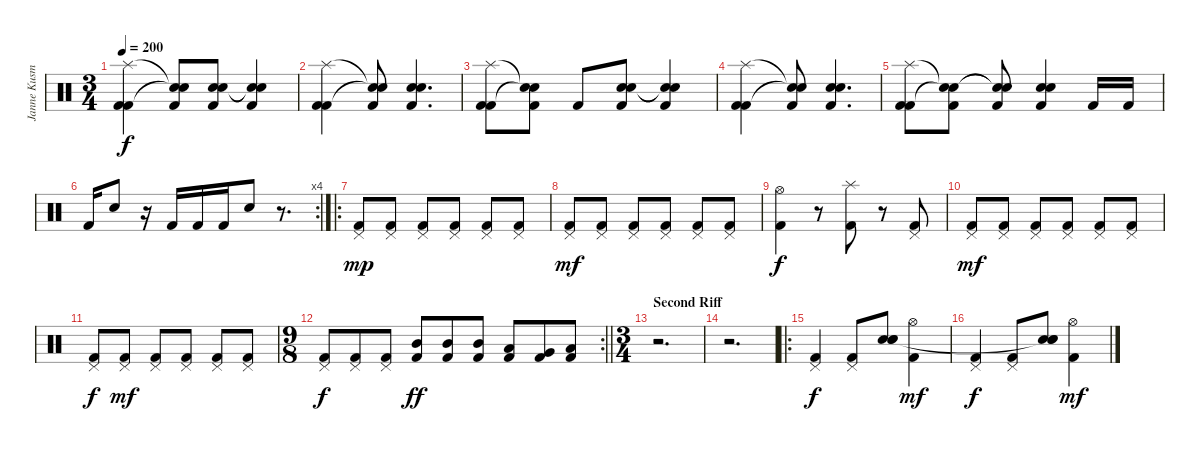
\track ("Janne Kusmin" "Janne Kusm") {instrument percussion}
\staff {score}
\articulation defaults
\ts (3 4)
\tempo 200
\clef neutral
\ks c
("Splash (hit)" "Kick (hit) 2" "Kick (hit) 2").4{dy f} ("Snare (hit)"{t} "Snare (hit)"{t} "Kick (hit) 2").8 ("Snare (hit) 2" "Snare (hit) 2" "Kick (hit) 2").8 ("Snare (hit)"{t} "Snare (hit)"{t} "Kick (hit) 2").4 |
("Splash (hit)" "Kick (hit) 2" "Kick (hit) 2").4 ("Snare (hit)"{t} "Snare (hit)"{t} "Kick (hit) 2").8 ("Snare (hit) 2" "Snare (hit) 2" "Kick (hit) 2").4{d} |
("Splash (hit)" "Kick (hit) 2" "Kick (hit) 2").8 ("Snare (hit)"{t} "Snare (hit)"{t} "Kick (hit) 2").8 "Kick (hit) 2".8 ("Snare (hit) 2" "Snare (hit) 2" "Kick (hit) 2").8 ("Snare (hit)"{t} "Snare (hit)"{t} "Kick (hit) 2").4 |
("Splash (hit)" "Kick (hit) 2" "Kick (hit) 2").4 ("Snare (hit)"{t} "Snare (hit)"{t} "Kick (hit) 2").8 ("Snare (hit) 2" "Snare (hit) 2" "Kick (hit) 2").4{d} |
("Splash (hit)" "Kick (hit) 2" "Kick (hit) 2").8 ("Snare (hit)"{t} "Snare (hit)"{t} "Kick (hit) 2").8 ("Snare (hit)"{t} "Snare (hit)"{t} "Kick (hit) 2").8 ("Snare (hit) 2" "Snare (hit) 2" "Kick (hit) 2").4 "Kick (hit) 2".16 "Kick (hit) 2".16 |
\rc 4 "Kick (hit) 2".16 "Snare (hit) 2".8
r.16 "Kick (hit) 2".16 "Kick (hit) 2".16 "Kick (hit) 2".16 "Snare (hit) 2".8 r.8{d} |
\ro
("Pedal Hi-Hat (hit)" "Kick (hit) 2").8{dy mp} ("Pedal Hi-Hat (hit)" "Kick (hit) 2").8 ("Pedal Hi-Hat (hit)" "Kick (hit) 2").8 ("Pedal Hi-Hat (hit)" "Kick (hit) 2").8 ("Pedal Hi-Hat (hit)" "Kick (hit) 2").8 ("Pedal Hi-Hat (hit)" "Kick (hit) 2").8 |
("Pedal Hi-Hat (hit)" "Kick (hit) 2").8{dy mf} ("Pedal Hi-Hat (hit)" "Kick (hit) 2").8 ("Pedal Hi-Hat (hit)" "Kick (hit) 2").8 ("Pedal Hi-Hat (hit)" "Kick (hit) 2").8 ("Pedal Hi-Hat (hit)" "Kick (hit) 2").8 ("Pedal Hi-Hat (hit)" "Kick (hit) 2").8 |
("Hi-Hat (open)" "Kick (hit) 2").4{dy f} r.8 ("Splash (hit)" "Kick (hit) 2").8 r.8 ("Pedal Hi-Hat (hit)" "Kick (hit) 2").8 |
("Pedal Hi-Hat (hit)" "Kick (hit) 2").8{dy mf} ("Pedal Hi-Hat (hit)" "Kick (hit) 2").8 ("Pedal Hi-Hat (hit)" "Kick (hit) 2").8 ("Pedal Hi-Hat (hit)" "Kick (hit) 2").8 ("Pedal Hi-Hat (hit)" "Kick (hit) 2").8 ("Pedal Hi-Hat (hit)" "Kick (hit) 2").8 |
("Pedal Hi-Hat (hit)" "Kick (hit) 2").8{dy f} ("Pedal Hi-Hat (hit)" "Kick (hit) 2").8{dy mf} ("Pedal Hi-Hat (hit)" "Kick (hit) 2").8 ("Pedal Hi-Hat (hit)" "Kick (hit) 2").8 ("Pedal Hi-Hat (hit)" "Kick (hit) 2").8 ("Pedal Hi-Hat (hit)" "Kick (hit) 2").8 |
\rc 2
\ts (9 8)
\barLineRight lightlight
("Pedal Hi-Hat (hit)" "Kick (hit) 2").8{dy f} ("Pedal Hi-Hat (hit)" "Kick (hit) 2").8 ("Pedal Hi-Hat (hit)" "Kick (hit) 2").8 ("Mid Tom (hit)" "Kick (hit) 2").8{dy ff} ("Mid Tom (hit)" "Kick (hit) 2").8 ("Mid Tom (hit)" "Kick (hit) 2").8 ("Low Tom (hit)" "Kick (hit) 2").8 ("Very Low Tom (hit)" "Kick (hit) 2").8 ("Low Floor Tom (hit)" "Kick (hit) 2").8 |
\ts (3 4)
\section ("" "Second Riff")
r.2{d} |
r.2{d} |
\ro
("Pedal Hi-Hat (hit)" "Kick (hit) 2").4{dy f} ("Pedal Hi-Hat (hit)" "Kick (hit) 2").8 ("Snare (hit) 2" "Snare (hit) 2" "Snare (hit) 2").8 ("Hi-Hat (open)" "Kick (hit) 2").4{dy mf} |
("Pedal Hi-Hat (hit)" "Kick (hit) 2").4{dy f} ("Pedal Hi-Hat (hit)" "Kick (hit) 2").8 ("Snare (hit) 2" "Snare (hit) 2" "Snare (hit) 2"{t}).8 ("Hi-Hat (open)" "Kick (hit) 2").4{dy mf}
